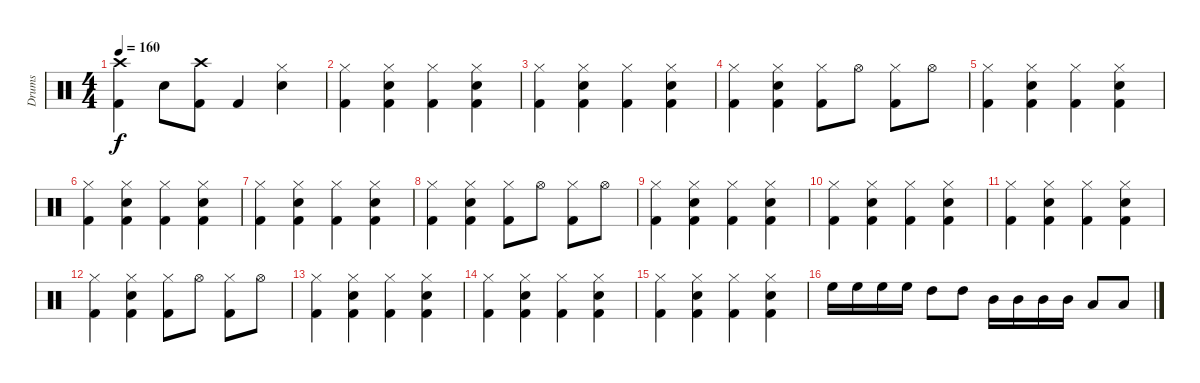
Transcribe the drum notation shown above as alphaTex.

\track ("Drums" "Drums") {instrument percussion}
\staff {score}
\articulation defaults
\ts (4 4)
\tempo 160
\clef neutral
\ks c
("Crash high (hit)" "Kick (hit) 2").4{dy f} "Snare (hit) 2".8 ("Crash high (hit)" "Kick (hit) 2").8 "Kick (hit) 2".4 ("Hi-Hat (closed)" "Snare (hit) 2").4 |
("Hi-Hat (closed)" "Kick (hit) 2").4 ("Hi-Hat (closed)" "Kick (hit) 2" "Snare (hit) 2").4 ("Hi-Hat (closed)" "Kick (hit) 2").4 ("Hi-Hat (closed)" "Kick (hit) 2" "Snare (hit) 2").4 |
("Hi-Hat (closed)" "Kick (hit) 2").4 ("Hi-Hat (closed)" "Kick (hit) 2" "Snare (hit) 2").4 ("Hi-Hat (closed)" "Kick (hit) 2").4 ("Hi-Hat (closed)" "Kick (hit) 2" "Snare (hit) 2").4 |
("Hi-Hat (closed)" "Kick (hit) 2").4 ("Hi-Hat (closed)" "Kick (hit) 2" "Snare (hit) 2").4 ("Hi-Hat (closed)" "Kick (hit) 2").8 "Hi-Hat (open)".8 ("Hi-Hat (closed)" "Kick (hit) 2").8 "Hi-Hat (open)".8 |
("Hi-Hat (closed)" "Kick (hit) 2").4 ("Hi-Hat (closed)" "Kick (hit) 2" "Snare (hit) 2").4 ("Hi-Hat (closed)" "Kick (hit) 2").4 ("Hi-Hat (closed)" "Kick (hit) 2" "Snare (hit) 2").4 |
("Hi-Hat (closed)" "Kick (hit) 2").4 ("Hi-Hat (closed)" "Kick (hit) 2" "Snare (hit) 2").4 ("Hi-Hat (closed)" "Kick (hit) 2").4 ("Hi-Hat (closed)" "Kick (hit) 2" "Snare (hit) 2").4 |
("Hi-Hat (closed)" "Kick (hit) 2").4 ("Hi-Hat (closed)" "Kick (hit) 2" "Snare (hit) 2").4 ("Hi-Hat (closed)" "Kick (hit) 2").4 ("Hi-Hat (closed)" "Kick (hit) 2" "Snare (hit) 2").4 |
("Hi-Hat (closed)" "Kick (hit) 2").4 ("Hi-Hat (closed)" "Kick (hit) 2" "Snare (hit) 2").4 ("Hi-Hat (closed)" "Kick (hit) 2").8 "Hi-Hat (open)".8 ("Hi-Hat (closed)" "Kick (hit) 2").8 "Hi-Hat (open)".8 |
("Hi-Hat (closed)" "Kick (hit) 2").4 ("Hi-Hat (closed)" "Kick (hit) 2" "Snare (hit) 2").4 ("Hi-Hat (closed)" "Kick (hit) 2").4 ("Hi-Hat (closed)" "Kick (hit) 2" "Snare (hit) 2").4 |
("Hi-Hat (closed)" "Kick (hit) 2").4 ("Hi-Hat (closed)" "Kick (hit) 2" "Snare (hit) 2").4 ("Hi-Hat (closed)" "Kick (hit) 2").4 ("Hi-Hat (closed)" "Kick (hit) 2" "Snare (hit) 2").4 |
("Hi-Hat (closed)" "Kick (hit) 2").4 ("Hi-Hat (closed)" "Kick (hit) 2" "Snare (hit) 2").4 ("Hi-Hat (closed)" "Kick (hit) 2").4 ("Hi-Hat (closed)" "Kick (hit) 2" "Snare (hit) 2").4 |
("Hi-Hat (closed)" "Kick (hit) 2").4 ("Hi-Hat (closed)" "Kick (hit) 2" "Snare (hit) 2").4 ("Hi-Hat (closed)" "Kick (hit) 2").8 "Hi-Hat (open)".8 ("Hi-Hat (closed)" "Kick (hit) 2").8 "Hi-Hat (open)".8 |
("Hi-Hat (closed)" "Kick (hit) 2").4 ("Hi-Hat (closed)" "Kick (hit) 2" "Snare (hit) 2").4 ("Hi-Hat (closed)" "Kick (hit) 2").4 ("Hi-Hat (closed)" "Kick (hit) 2" "Snare (hit) 2").4 |
("Hi-Hat (closed)" "Kick (hit) 2").4 ("Hi-Hat (closed)" "Kick (hit) 2" "Snare (hit) 2").4 ("Hi-Hat (closed)" "Kick (hit) 2").4 ("Hi-Hat (closed)" "Kick (hit) 2" "Snare (hit) 2").4 |
("Hi-Hat (closed)" "Kick (hit) 2").4 ("Hi-Hat (closed)" "Kick (hit) 2" "Snare (hit) 2").4 ("Hi-Hat (closed)" "Kick (hit) 2").4 ("Hi-Hat (closed)" "Kick (hit) 2" "Snare (hit) 2").4 |
"High Floor Tom (hit)".16 "High Floor Tom (hit)".16 "High Floor Tom (hit)".16 "High Floor Tom (hit)".16 "High Tom (hit)".8 "High Tom (hit)".8 "Mid Tom (hit)".16 "Mid Tom (hit)".16 "Mid Tom (hit)".16 "Mid Tom (hit)".16 "Low Tom (hit)".8 "Low Tom (hit)".8
